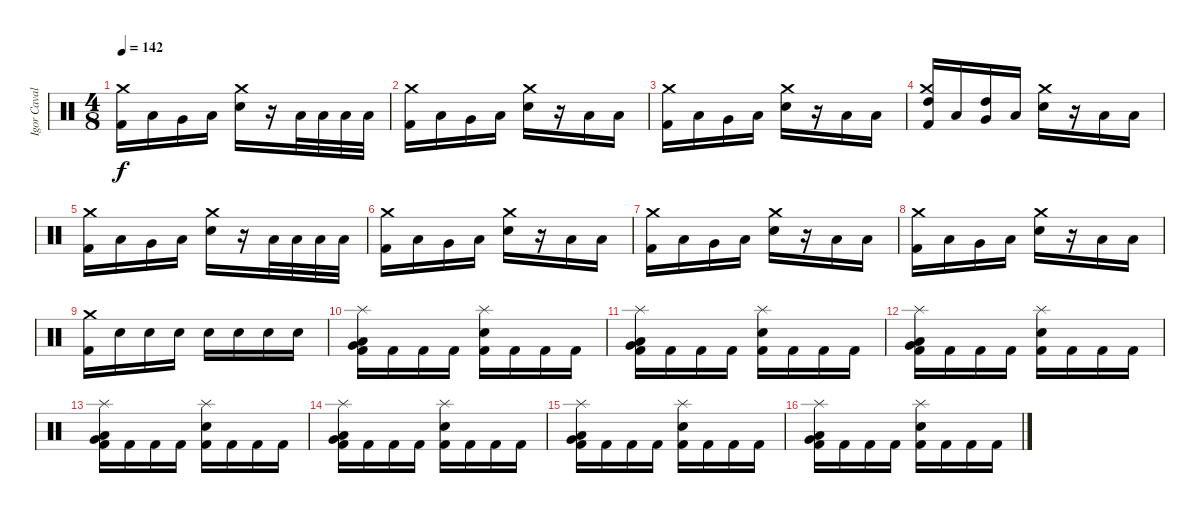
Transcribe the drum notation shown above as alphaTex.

\track ("Igor Cavalera" "Igor Caval") {instrument percussion}
\staff {score}
\articulation defaults
\ts (4 8)
\tempo 142
\clef neutral
\ks c
("Kick (hit) 2" "Crash medium (hit)").16{dy f} "Low Tom (hit)".16 "Very Low Tom (hit)".16 "Low Floor Tom (hit)".16 ("Electric Snare (hit)" "Crash medium (hit)").16 r.16 "Low Tom (hit)".32 "Low Tom (hit)".32 "Low Tom (hit)".32 "Low Tom (hit)".32 |
("Kick (hit) 2" "Crash medium (hit)").16 "Low Tom (hit)".16 "Very Low Tom (hit)".16 "Low Floor Tom (hit)".16 ("Electric Snare (hit)" "Crash medium (hit)").16 r.16 "Low Floor Tom (hit)".16 "Low Tom (hit)".16 |
("Kick (hit) 2" "Crash medium (hit)").16 "Low Tom (hit)".16 "Very Low Tom (hit)".16 "Low Floor Tom (hit)".16 ("Electric Snare (hit)" "Crash medium (hit)").16 r.16 "Low Floor Tom (hit)".16 "Low Tom (hit)".16 |
("Kick (hit) 2" "Crash medium (hit)" "High Tom (hit)").16 "Low Tom (hit)".16 ("Very Low Tom (hit)" "High Tom (hit)").16 "Low Floor Tom (hit)".16 ("Electric Snare (hit)" "Crash medium (hit)").16 r.16 "Low Floor Tom (hit)".16 "Low Tom (hit)".16 |
("Kick (hit) 2" "Crash medium (hit)").16 "Low Tom (hit)".16 "Very Low Tom (hit)".16 "Low Floor Tom (hit)".16 ("Electric Snare (hit)" "Crash medium (hit)").16 r.16 "Low Tom (hit)".32 "Low Tom (hit)".32 "Low Tom (hit)".32 "Low Tom (hit)".32 |
("Kick (hit) 2" "Crash medium (hit)").16 "Low Tom (hit)".16 "Very Low Tom (hit)".16 "Low Floor Tom (hit)".16 ("Electric Snare (hit)" "Crash medium (hit)").16 r.16 "Low Floor Tom (hit)".16 "Low Tom (hit)".16 |
("Kick (hit) 2" "Crash medium (hit)").16 "Low Tom (hit)".16 "Very Low Tom (hit)".16 "Low Floor Tom (hit)".16 ("Electric Snare (hit)" "Crash medium (hit)").16 r.16 "Low Floor Tom (hit)".16 "Low Tom (hit)".16 |
("Kick (hit) 2" "Crash medium (hit)").16 "Low Tom (hit)".16 "Very Low Tom (hit)".16 "Low Floor Tom (hit)".16 ("Electric Snare (hit)" "Crash medium (hit)").16 r.16 "Low Floor Tom (hit)".16 "Low Tom (hit)".16 |
("Kick (hit) 2" "Crash medium (hit)").16 "Electric Snare (hit)".16 "Electric Snare (hit)".16 "Electric Snare (hit)".16 "Electric Snare (hit)".16 "Electric Snare (hit)".16 "Electric Snare (hit)".16 "Electric Snare (hit)".16 |
("Kick (hit) 2" "Low Floor Tom (hit)" "Very Low Tom (hit)" "Splash (hit)").16 "Kick (hit) 2".16 "Kick (hit) 2".16 "Kick (hit) 2".16 ("Kick (hit) 2" "Electric Snare (hit)" "Splash (hit)").16 "Kick (hit) 2".16 "Kick (hit) 2".16 "Kick (hit) 2".16 |
("Kick (hit) 2" "Low Floor Tom (hit)" "Very Low Tom (hit)" "Splash (hit)").16 "Kick (hit) 2".16 "Kick (hit) 2".16 "Kick (hit) 2".16 ("Kick (hit) 2" "Electric Snare (hit)" "Splash (hit)").16 "Kick (hit) 2".16 "Kick (hit) 2".16 "Kick (hit) 2".16 |
("Kick (hit) 2" "Low Floor Tom (hit)" "Very Low Tom (hit)" "Splash (hit)").16 "Kick (hit) 2".16 "Kick (hit) 2".16 "Kick (hit) 2".16 ("Kick (hit) 2" "Electric Snare (hit)" "Splash (hit)").16 "Kick (hit) 2".16 "Kick (hit) 2".16 "Kick (hit) 2".16 |
("Kick (hit) 2" "Low Floor Tom (hit)" "Very Low Tom (hit)" "Splash (hit)").16 "Kick (hit) 2".16 "Kick (hit) 2".16 "Kick (hit) 2".16 ("Kick (hit) 2" "Electric Snare (hit)" "Splash (hit)").16 "Kick (hit) 2".16 "Kick (hit) 2".16 "Kick (hit) 2".16 |
("Kick (hit) 2" "Low Floor Tom (hit)" "Very Low Tom (hit)" "Splash (hit)").16 "Kick (hit) 2".16 "Kick (hit) 2".16 "Kick (hit) 2".16 ("Kick (hit) 2" "Electric Snare (hit)" "Splash (hit)").16 "Kick (hit) 2".16 "Kick (hit) 2".16 "Kick (hit) 2".16 |
("Kick (hit) 2" "Low Floor Tom (hit)" "Very Low Tom (hit)" "Splash (hit)").16 "Kick (hit) 2".16 "Kick (hit) 2".16 "Kick (hit) 2".16 ("Kick (hit) 2" "Electric Snare (hit)" "Splash (hit)").16 "Kick (hit) 2".16 "Kick (hit) 2".16 "Kick (hit) 2".16 |
("Kick (hit) 2" "Low Floor Tom (hit)" "Very Low Tom (hit)" "Splash (hit)").16 "Kick (hit) 2".16 "Kick (hit) 2".16 "Kick (hit) 2".16 ("Kick (hit) 2" "Electric Snare (hit)" "Splash (hit)").16 "Kick (hit) 2".16 "Kick (hit) 2".16 "Kick (hit) 2".16
